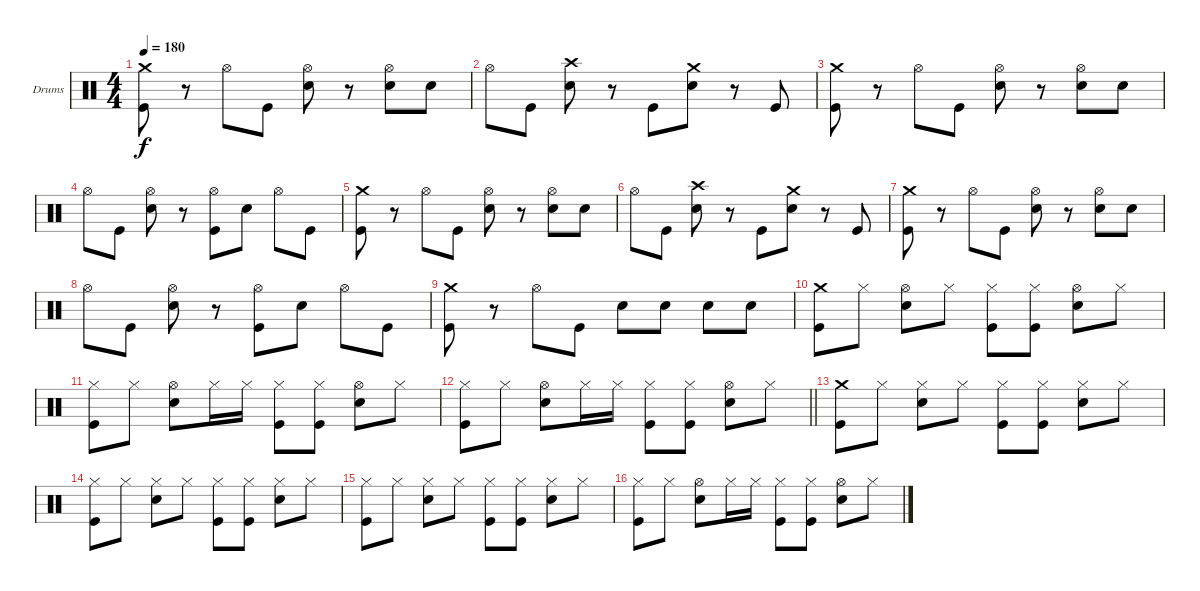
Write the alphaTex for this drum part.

\bracketExtendMode groupsimilarinstruments
\firstSystemTrackNameOrientation horizontal
\otherSystemsTrackNameOrientation horizontal
\track ("Drumkit" "Drums") {instrument percussion}
\staff {score}
\articulation defaults
\ts (4 4)
\tempo 180
\clef neutral
\ks c
("Kick (hit)" "Crash medium (hit)").8{dy f} r.8 "Hi-Hat (open)".8 "Kick (hit)".8 ("Snare (hit) 2" "Hi-Hat (open)").8 r.8 ("Snare (hit) 2" "Hi-Hat (open)").8 "Snare (hit) 2".8 |
"Hi-Hat (open)".8 "Kick (hit)".8 ("Crash high (hit)" "Snare (hit) 2").8 r.8 "Kick (hit)".8 ("Crash medium (hit)" "Snare (hit) 2").8 r.8 "Kick (hit)".8 |
("Kick (hit)" "Crash medium (hit)").8 r.8 "Hi-Hat (open)".8 "Kick (hit)".8 ("Snare (hit) 2" "Hi-Hat (open)").8 r.8 ("Snare (hit) 2" "Hi-Hat (open)").8 "Snare (hit) 2".8 |
"Hi-Hat (open)".8 "Kick (hit)".8 ("Hi-Hat (open)" "Snare (hit) 2").8 r.8 ("Hi-Hat (open)" "Kick (hit)").8 "Snare (hit) 2".8 "Hi-Hat (open)".8 "Kick (hit)".8 |
("Kick (hit)" "Crash medium (hit)").8 r.8 "Hi-Hat (open)".8 "Kick (hit)".8 ("Snare (hit) 2" "Hi-Hat (open)").8 r.8 ("Snare (hit) 2" "Hi-Hat (open)").8 "Snare (hit) 2".8 |
"Hi-Hat (open)".8 "Kick (hit)".8 ("Crash high (hit)" "Snare (hit) 2").8 r.8 "Kick (hit)".8 ("Crash medium (hit)" "Snare (hit) 2").8 r.8 "Kick (hit)".8 |
("Kick (hit)" "Crash medium (hit)").8 r.8 "Hi-Hat (open)".8 "Kick (hit)".8 ("Snare (hit) 2" "Hi-Hat (open)").8 r.8 ("Snare (hit) 2" "Hi-Hat (open)").8 "Snare (hit) 2".8 |
"Hi-Hat (open)".8 "Kick (hit)".8 ("Hi-Hat (open)" "Snare (hit) 2").8 r.8 ("Hi-Hat (open)" "Kick (hit)").8 "Snare (hit) 2".8 "Hi-Hat (open)".8 "Kick (hit)".8 |
("Kick (hit)" "Crash medium (hit)").8 r.8 "Hi-Hat (open)".8 "Kick (hit)".8 "Snare (hit) 2".8 "Snare (hit) 2".8 "Snare (hit) 2".8 "Snare (hit) 2".8 |
("Crash medium (hit)" "Kick (hit)").8 "Hi-Hat (closed)".8 ("Hi-Hat (open)" "Snare (hit) 2").8 "Hi-Hat (closed)".8 ("Hi-Hat (closed)" "Kick (hit)").8 ("Hi-Hat (closed)" "Kick (hit)").8 ("Hi-Hat (open)" "Snare (hit) 2").8 "Hi-Hat (closed)".8 |
("Hi-Hat (closed)" "Kick (hit)").8 "Hi-Hat (closed)".8 ("Hi-Hat (open)" "Snare (hit) 2").8 "Hi-Hat (closed)".16 "Hi-Hat (closed)".16 ("Hi-Hat (closed)" "Kick (hit)").8 ("Hi-Hat (closed)" "Kick (hit)").8 ("Hi-Hat (open)" "Snare (hit) 2").8 "Hi-Hat (closed)".8 |
\barLineRight lightlight
("Hi-Hat (closed)" "Kick (hit)").8 "Hi-Hat (closed)".8 ("Hi-Hat (open)" "Snare (hit) 2").8 "Hi-Hat (closed)".16 "Hi-Hat (closed)".16 ("Hi-Hat (closed)" "Kick (hit)").8 ("Hi-Hat (closed)" "Kick (hit)").8 ("Hi-Hat (open)" "Snare (hit) 2").8 "Hi-Hat (closed)".8 |
("Crash medium (hit)" "Kick (hit)").8 "Hi-Hat (closed)".8 ("Hi-Hat (closed)" "Snare (hit) 2").8 "Hi-Hat (closed)".8 ("Hi-Hat (closed)" "Kick (hit)").8 ("Hi-Hat (closed)" "Kick (hit)").8 ("Hi-Hat (closed)" "Snare (hit) 2").8 "Hi-Hat (closed)".8 |
("Hi-Hat (closed)" "Kick (hit)").8 "Hi-Hat (closed)".8 ("Hi-Hat (closed)" "Snare (hit) 2").8 "Hi-Hat (closed)".8 ("Hi-Hat (closed)" "Kick (hit)").8 ("Hi-Hat (closed)" "Kick (hit)").8 ("Hi-Hat (closed)" "Snare (hit) 2").8 "Hi-Hat (closed)".8 |
("Hi-Hat (closed)" "Kick (hit)").8 "Hi-Hat (closed)".8 ("Hi-Hat (closed)" "Snare (hit) 2").8 "Hi-Hat (closed)".8 ("Hi-Hat (closed)" "Kick (hit)").8 ("Hi-Hat (closed)" "Kick (hit)").8 ("Hi-Hat (closed)" "Snare (hit) 2").8 "Hi-Hat (closed)".8 |
("Hi-Hat (closed)" "Kick (hit)").8 "Hi-Hat (closed)".8 ("Hi-Hat (open)" "Snare (hit) 2").8 "Hi-Hat (closed)".16 "Hi-Hat (closed)".16 ("Hi-Hat (closed)" "Kick (hit)").8 ("Hi-Hat (closed)" "Kick (hit)").8 ("Hi-Hat (open)" "Snare (hit) 2").8 "Hi-Hat (closed)".8
